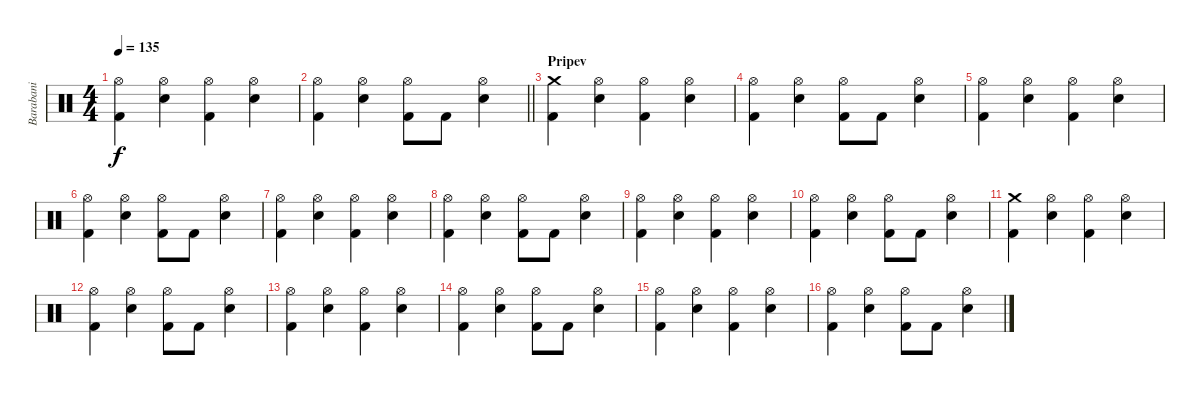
\track ("Barabani" "Barabani") {instrument percussion}
\staff {score}
\articulation defaults
\ts (4 4)
\tempo 135
\clef neutral
\ks c
("Hi-Hat (open)" "Kick (hit) 2").4{dy f} ("Hi-Hat (open)" "Snare (hit) 2").4 ("Hi-Hat (open)" "Kick (hit) 2").4 ("Hi-Hat (open)" "Snare (hit) 2").4 |
\barLineRight lightlight
("Hi-Hat (open)" "Kick (hit) 2").4 ("Hi-Hat (open)" "Snare (hit) 2").4 ("Hi-Hat (open)" "Kick (hit) 2").8 "Kick (hit) 2".8 ("Hi-Hat (open)" "Snare (hit) 2").4 |
\section ("" "Pripev")
("Crash medium (hit)" "Kick (hit) 2").4 ("Hi-Hat (open)" "Snare (hit) 2").4 ("Hi-Hat (open)" "Kick (hit) 2").4 ("Hi-Hat (open)" "Snare (hit) 2").4 |
("Hi-Hat (open)" "Kick (hit) 2").4 ("Hi-Hat (open)" "Snare (hit) 2").4 ("Hi-Hat (open)" "Kick (hit) 2").8 "Kick (hit) 2".8 ("Hi-Hat (open)" "Snare (hit) 2").4 |
("Hi-Hat (open)" "Kick (hit) 2").4 ("Hi-Hat (open)" "Snare (hit) 2").4 ("Hi-Hat (open)" "Kick (hit) 2").4 ("Hi-Hat (open)" "Snare (hit) 2").4 |
("Hi-Hat (open)" "Kick (hit) 2").4 ("Hi-Hat (open)" "Snare (hit) 2").4 ("Hi-Hat (open)" "Kick (hit) 2").8 "Kick (hit) 2".8 ("Hi-Hat (open)" "Snare (hit) 2").4 |
("Hi-Hat (open)" "Kick (hit) 2").4 ("Hi-Hat (open)" "Snare (hit) 2").4 ("Hi-Hat (open)" "Kick (hit) 2").4 ("Hi-Hat (open)" "Snare (hit) 2").4 |
("Hi-Hat (open)" "Kick (hit) 2").4 ("Hi-Hat (open)" "Snare (hit) 2").4 ("Hi-Hat (open)" "Kick (hit) 2").8 "Kick (hit) 2".8 ("Hi-Hat (open)" "Snare (hit) 2").4 |
("Hi-Hat (open)" "Kick (hit) 2").4 ("Hi-Hat (open)" "Snare (hit) 2").4 ("Hi-Hat (open)" "Kick (hit) 2").4 ("Hi-Hat (open)" "Snare (hit) 2").4 |
("Hi-Hat (open)" "Kick (hit) 2").4 ("Hi-Hat (open)" "Snare (hit) 2").4 ("Hi-Hat (open)" "Kick (hit) 2").8 "Kick (hit) 2".8 ("Hi-Hat (open)" "Snare (hit) 2").4 |
("Crash medium (hit)" "Kick (hit) 2").4 ("Hi-Hat (open)" "Snare (hit) 2").4 ("Hi-Hat (open)" "Kick (hit) 2").4 ("Hi-Hat (open)" "Snare (hit) 2").4 |
("Hi-Hat (open)" "Kick (hit) 2").4 ("Hi-Hat (open)" "Snare (hit) 2").4 ("Hi-Hat (open)" "Kick (hit) 2").8 "Kick (hit) 2".8 ("Hi-Hat (open)" "Snare (hit) 2").4 |
("Hi-Hat (open)" "Kick (hit) 2").4 ("Hi-Hat (open)" "Snare (hit) 2").4 ("Hi-Hat (open)" "Kick (hit) 2").4 ("Hi-Hat (open)" "Snare (hit) 2").4 |
("Hi-Hat (open)" "Kick (hit) 2").4 ("Hi-Hat (open)" "Snare (hit) 2").4 ("Hi-Hat (open)" "Kick (hit) 2").8 "Kick (hit) 2".8 ("Hi-Hat (open)" "Snare (hit) 2").4 |
("Hi-Hat (open)" "Kick (hit) 2").4 ("Hi-Hat (open)" "Snare (hit) 2").4 ("Hi-Hat (open)" "Kick (hit) 2").4 ("Hi-Hat (open)" "Snare (hit) 2").4 |
("Hi-Hat (open)" "Kick (hit) 2").4 ("Hi-Hat (open)" "Snare (hit) 2").4 ("Hi-Hat (open)" "Kick (hit) 2").8 "Kick (hit) 2".8 ("Hi-Hat (open)" "Snare (hit) 2").4
